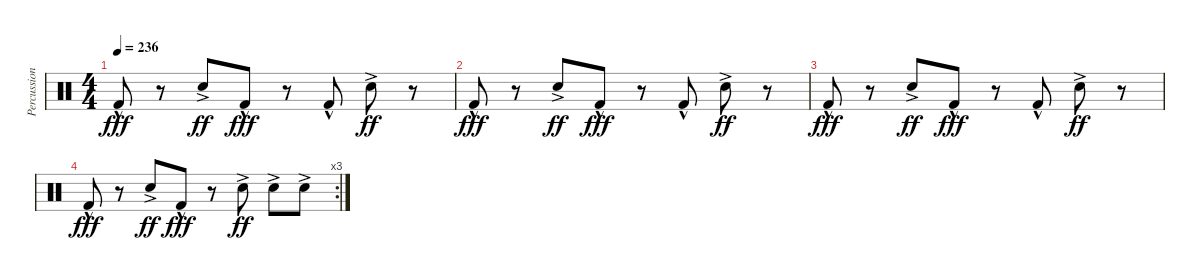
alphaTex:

\track ("Percussion" "Percussion") {instrument percussion}
\staff {score}
\articulation defaults
\ts (4 4)
\tempo 236
\clef neutral
\ks c "Kick (hit) 2"{hac}.8{dy fff}
r.8 "Snare (hit) 2"{ac}.8{dy ff} "Kick (hit) 2"{hac}.8{dy fff} r.8 "Kick (hit) 2"{hac}.8 "Snare (hit) 2"{ac}.8{dy ff} r.8 |
"Kick (hit) 2"{hac}.8{dy fff} r.8 "Snare (hit) 2"{ac}.8{dy ff} "Kick (hit) 2"{hac}.8{dy fff} r.8 "Kick (hit) 2"{hac}.8 "Snare (hit) 2"{ac}.8{dy ff} r.8 |
"Kick (hit) 2"{hac}.8{dy fff} r.8 "Snare (hit) 2"{ac}.8{dy ff} "Kick (hit) 2"{hac}.8{dy fff} r.8 "Kick (hit) 2"{hac}.8 "Snare (hit) 2"{ac}.8{dy ff} r.8 |
\rc 3 "Kick (hit) 2"{hac}.8{dy fff}
r.8 "Snare (hit) 2"{ac}.8{dy ff} "Kick (hit) 2"{hac}.8{dy fff} r.8 "Snare (hit) 2"{ac}.8{dy ff} "Snare (hit) 2"{ac}.8 "Snare (hit) 2"{ac}.8
